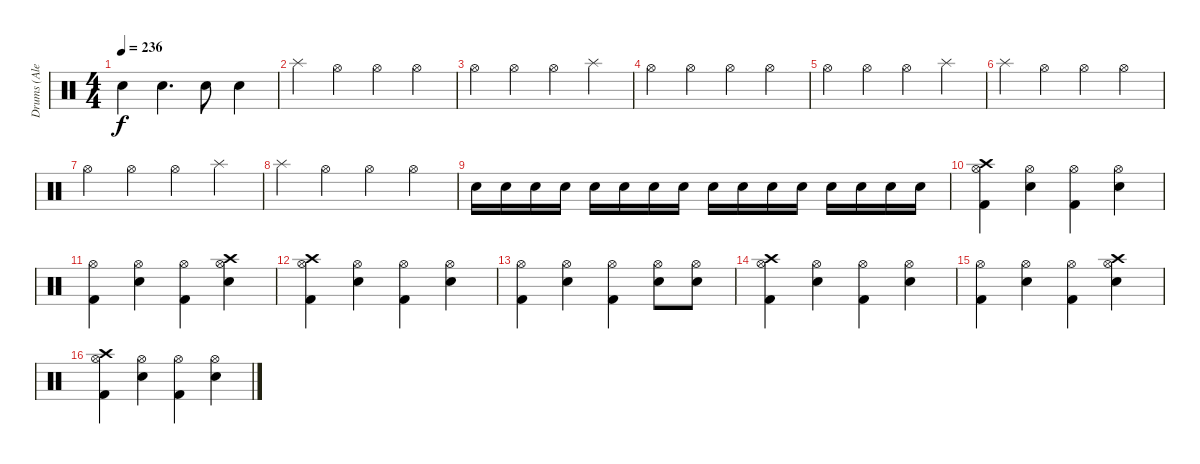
\track ("Drums (Alex Van Halen)" "Drums (Ale") {instrument percussion}
\staff {score}
\articulation defaults
\ts (4 4)
\tempo 236
\clef neutral
\ks c "Electric Snare (hit)"{t}.4{dy f} "Snare (hit) 2".4{d} "Snare (hit) 2".8 "Snare (hit) 2".4
|
"Splash (hit)".4 "Hi-Hat (open)".4 "Hi-Hat (open)".4 "Hi-Hat (open)".4 |
"Hi-Hat (open)".4 "Hi-Hat (open)".4 "Hi-Hat (open)".4 "Splash (hit)".4 |
"Hi-Hat (open)".4 "Hi-Hat (open)".4 "Hi-Hat (open)".4 "Hi-Hat (open)".4 |
"Hi-Hat (open)".4 "Hi-Hat (open)".4 "Hi-Hat (open)".4 "Splash (hit)".4 |
"Splash (hit)".4 "Hi-Hat (open)".4 "Hi-Hat (open)".4 "Hi-Hat (open)".4 |
"Hi-Hat (open)".4 "Hi-Hat (open)".4 "Hi-Hat (open)".4 "Splash (hit)".4 |
"Splash (hit)".4 "Hi-Hat (open)".4 "Hi-Hat (open)".4 "Hi-Hat (open)".4 |
"Snare (hit) 2".16 "Snare (hit) 2".16 "Snare (hit) 2".16 "Snare (hit) 2".16 "Snare (hit) 2".16 "Snare (hit) 2".16 "Snare (hit) 2".16 "Snare (hit) 2".16 "Snare (hit) 2".16 "Snare (hit) 2".16 "Snare (hit) 2".16 "Snare (hit) 2".16 "Snare (hit) 2".16 "Snare (hit) 2".16 "Snare (hit) 2".16 "Snare (hit) 2".16 |
("Hi-Hat (open)" "Crash high (hit)" "Kick (hit) 2").4 ("Hi-Hat (open)" "Snare (hit) 2").4 ("Hi-Hat (open)" "Kick (hit) 2").4 ("Hi-Hat (open)" "Snare (hit) 2").4 |
("Hi-Hat (open)" "Kick (hit) 2").4 ("Hi-Hat (open)" "Snare (hit) 2").4 ("Hi-Hat (open)" "Kick (hit) 2").4 ("Hi-Hat (open)" "Crash high (hit)" "Snare (hit) 2").4 |
("Hi-Hat (open)" "Crash high (hit)" "Kick (hit) 2").4 ("Hi-Hat (open)" "Snare (hit) 2").4 ("Hi-Hat (open)" "Kick (hit) 2").4 ("Hi-Hat (open)" "Snare (hit) 2").4 |
("Hi-Hat (open)" "Kick (hit) 2").4 ("Hi-Hat (open)" "Snare (hit) 2").4 ("Hi-Hat (open)" "Kick (hit) 2").4 ("Hi-Hat (open)" "Snare (hit) 2").8 ("Hi-Hat (open)" "Snare (hit) 2").8 |
("Hi-Hat (open)" "Crash high (hit)" "Kick (hit) 2").4 ("Hi-Hat (open)" "Snare (hit) 2").4 ("Hi-Hat (open)" "Kick (hit) 2").4 ("Hi-Hat (open)" "Snare (hit) 2").4 |
("Hi-Hat (open)" "Kick (hit) 2").4 ("Hi-Hat (open)" "Snare (hit) 2").4 ("Hi-Hat (open)" "Kick (hit) 2").4 ("Hi-Hat (open)" "Crash high (hit)" "Snare (hit) 2").4 |
("Hi-Hat (open)" "Crash high (hit)" "Kick (hit) 2").4 ("Hi-Hat (open)" "Snare (hit) 2").4 ("Hi-Hat (open)" "Kick (hit) 2").4 ("Hi-Hat (open)" "Snare (hit) 2").4
